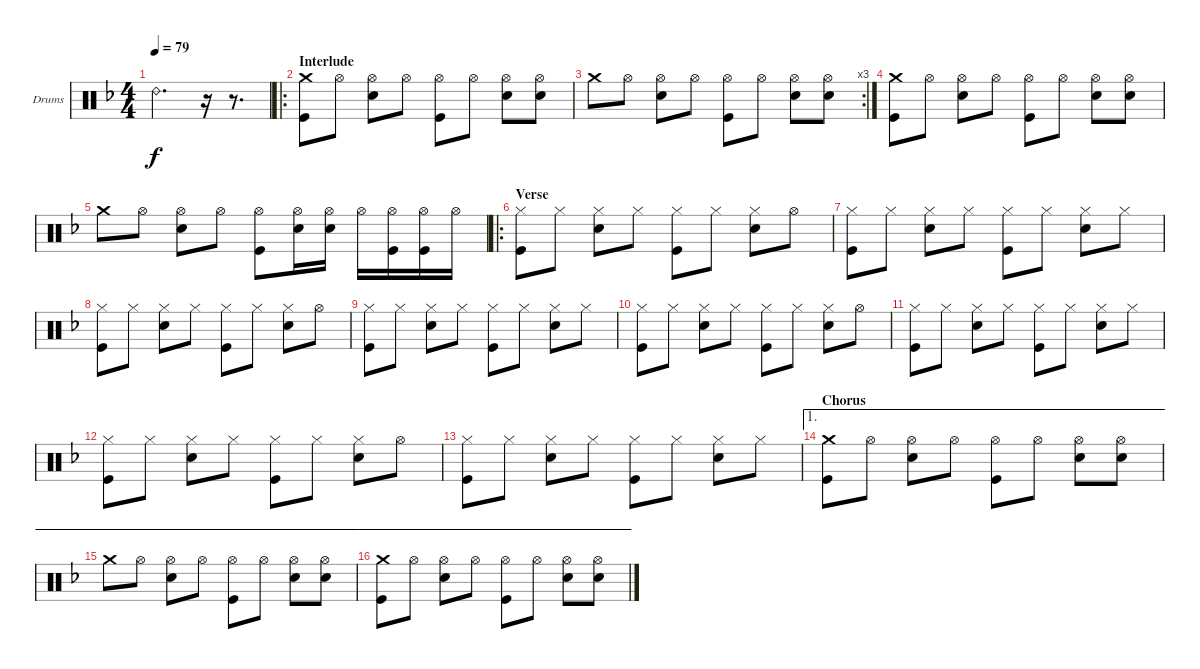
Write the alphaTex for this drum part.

\defaultSystemsLayout 4
\bracketExtendMode groupsimilarinstruments
\firstSystemTrackNameOrientation horizontal
\otherSystemsTrackNameOrientation horizontal
\track ("Drumkit" "Drums") {instrument percussion}
\staff {score}
\articulation defaults
\ts (4 4)
\tempo 79
\clef neutral
\ks f "Ride (bell) 2".2{d dy f}
r.16 r.8{d} |
\ro
\section ("" "Interlude")
("Crash medium (hit)" "Kick (hit)").8 "Hi-Hat (open)".8 ("Hi-Hat (open)" "Snare (hit) 2").8 "Hi-Hat (open)".8 ("Hi-Hat (open)" "Kick (hit)").8 "Hi-Hat (open)".8 ("Hi-Hat (open)" "Snare (hit) 2").8 ("Snare (hit) 2" "Hi-Hat (open)").8 |
\rc 3 "Crash medium (hit)".8 "Hi-Hat (open)".8
("Hi-Hat (open)" "Snare (hit) 2").8 "Hi-Hat (open)".8 ("Hi-Hat (open)" "Kick (hit)").8 "Hi-Hat (open)".8 ("Hi-Hat (open)" "Snare (hit) 2").8 ("Snare (hit) 2" "Hi-Hat (open)").8 |
("Crash medium (hit)" "Kick (hit)").8 "Hi-Hat (open)".8 ("Hi-Hat (open)" "Snare (hit) 2").8 "Hi-Hat (open)".8 ("Hi-Hat (open)" "Kick (hit)").8 "Hi-Hat (open)".8 ("Hi-Hat (open)" "Snare (hit) 2").8 ("Snare (hit) 2" "Hi-Hat (open)").8 |
"Crash medium (hit)".8 "Hi-Hat (open)".8 ("Hi-Hat (open)" "Snare (hit) 2").8 "Hi-Hat (open)".8 ("Hi-Hat (open)" "Kick (hit)").8 ("Hi-Hat (open)" "Snare (hit) 2").16 ("Hi-Hat (open)" "Snare (hit) 2").16 "Hi-Hat (open)".16 ("Hi-Hat (open)" "Kick (hit)").16 ("Hi-Hat (open)" "Kick (hit)").16 "Hi-Hat (open)".16 |
\ro
\section ("" "Verse")
("Hi-Hat (closed)" "Kick (hit)").8 "Hi-Hat (closed)".8 ("Hi-Hat (closed)" "Snare (hit) 2").8 "Hi-Hat (closed)".8 ("Hi-Hat (closed)" "Kick (hit)").8 "Hi-Hat (closed)".8 ("Hi-Hat (closed)" "Snare (hit) 2").8 "Hi-Hat (open)".8 |
("Hi-Hat (closed)" "Kick (hit)").8 "Hi-Hat (closed)".8 ("Hi-Hat (closed)" "Snare (hit) 2").8 "Hi-Hat (closed)".8 ("Hi-Hat (closed)" "Kick (hit)").8 "Hi-Hat (closed)".8 ("Hi-Hat (closed)" "Snare (hit) 2").8 "Hi-Hat (closed)".8 |
("Hi-Hat (closed)" "Kick (hit)").8 "Hi-Hat (closed)".8 ("Hi-Hat (closed)" "Snare (hit) 2").8 "Hi-Hat (closed)".8 ("Hi-Hat (closed)" "Kick (hit)").8 "Hi-Hat (closed)".8 ("Hi-Hat (closed)" "Snare (hit) 2").8 "Hi-Hat (open)".8 |
("Hi-Hat (closed)" "Kick (hit)").8 "Hi-Hat (closed)".8 ("Hi-Hat (closed)" "Snare (hit) 2").8 "Hi-Hat (closed)".8 ("Hi-Hat (closed)" "Kick (hit)").8 "Hi-Hat (closed)".8 ("Hi-Hat (closed)" "Snare (hit) 2").8 "Hi-Hat (closed)".8 |
("Hi-Hat (closed)" "Kick (hit)").8 "Hi-Hat (closed)".8 ("Hi-Hat (closed)" "Snare (hit) 2").8 "Hi-Hat (closed)".8 ("Hi-Hat (closed)" "Kick (hit)").8 "Hi-Hat (closed)".8 ("Hi-Hat (closed)" "Snare (hit) 2").8 "Hi-Hat (open)".8 |
("Hi-Hat (closed)" "Kick (hit)").8 "Hi-Hat (closed)".8 ("Hi-Hat (closed)" "Snare (hit) 2").8 "Hi-Hat (closed)".8 ("Hi-Hat (closed)" "Kick (hit)").8 "Hi-Hat (closed)".8 ("Hi-Hat (closed)" "Snare (hit) 2").8 "Hi-Hat (closed)".8 |
("Hi-Hat (closed)" "Kick (hit)").8 "Hi-Hat (closed)".8 ("Hi-Hat (closed)" "Snare (hit) 2").8 "Hi-Hat (closed)".8 ("Hi-Hat (closed)" "Kick (hit)").8 "Hi-Hat (closed)".8 ("Hi-Hat (closed)" "Snare (hit) 2").8 "Hi-Hat (open)".8 |
("Hi-Hat (closed)" "Kick (hit)").8 "Hi-Hat (closed)".8 ("Hi-Hat (closed)" "Snare (hit) 2").8 "Hi-Hat (closed)".8 ("Hi-Hat (closed)" "Kick (hit)").8 "Hi-Hat (closed)".8 ("Hi-Hat (closed)" "Snare (hit) 2").8 "Hi-Hat (closed)".8 |
\ae 1
\section ("" "Chorus")
("Crash medium (hit)" "Kick (hit)").8 "Hi-Hat (open)".8 ("Hi-Hat (open)" "Snare (hit) 2").8 "Hi-Hat (open)".8 ("Hi-Hat (open)" "Kick (hit)").8 "Hi-Hat (open)".8 ("Hi-Hat (open)" "Snare (hit) 2").8 ("Hi-Hat (open)" "Snare (hit) 2").8 |
\ae 1 "Crash medium (hit)".8 "Hi-Hat (open)".8
("Hi-Hat (open)" "Snare (hit) 2").8 "Hi-Hat (open)".8 ("Hi-Hat (open)" "Kick (hit)").8 "Hi-Hat (open)".8 ("Hi-Hat (open)" "Snare (hit) 2").8 ("Snare (hit) 2" "Hi-Hat (open)").8 |
\ae 1
("Crash medium (hit)" "Kick (hit)").8 "Hi-Hat (open)".8 ("Hi-Hat (open)" "Snare (hit) 2").8 "Hi-Hat (open)".8 ("Hi-Hat (open)" "Kick (hit)").8 "Hi-Hat (open)".8 ("Hi-Hat (open)" "Snare (hit) 2").8 ("Hi-Hat (open)" "Snare (hit) 2").8
